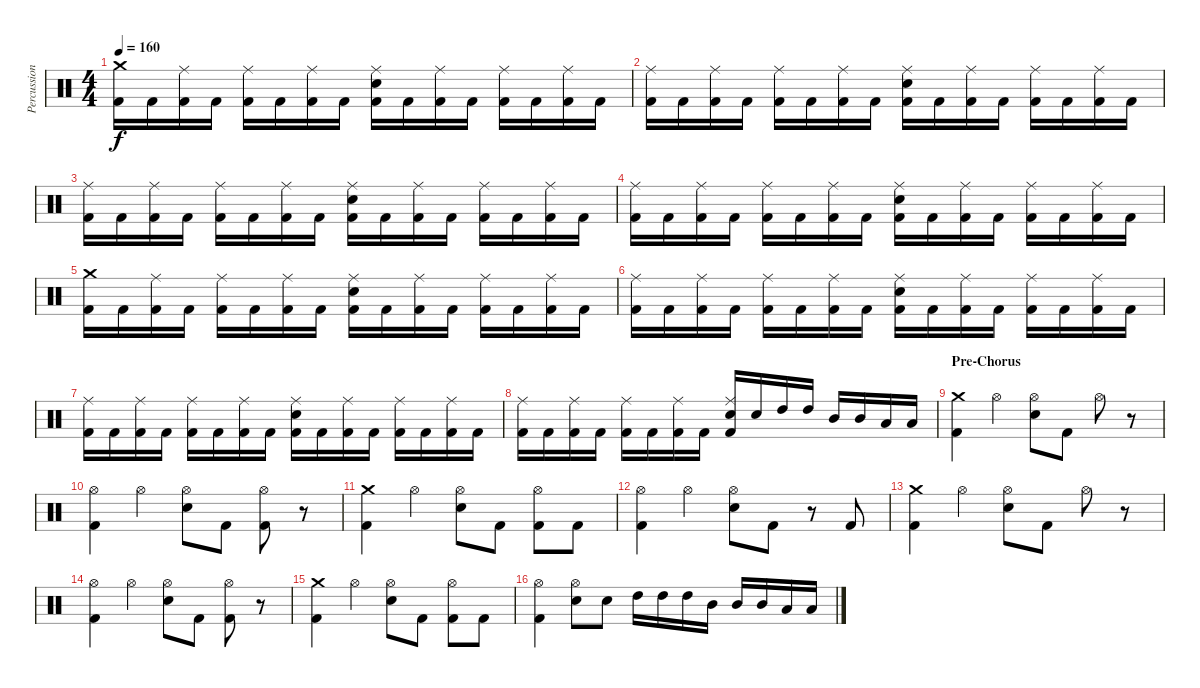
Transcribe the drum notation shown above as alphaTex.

\track ("Percussions" "Percussion") {instrument percussion}
\staff {score}
\articulation defaults
\ts (4 4)
\tempo 160
\clef neutral
\ks c
("Crash medium (hit)" "Kick (hit) 2").16{dy f} "Kick (hit) 2".16 ("Ride (middle)" "Kick (hit) 2").16 "Kick (hit) 2".16 ("Ride (middle)" "Kick (hit) 2").16 "Kick (hit) 2".16 ("Ride (middle)" "Kick (hit) 2").16 "Kick (hit) 2".16 ("Ride (middle)" "Electric Snare (hit)" "Kick (hit) 2").16 "Kick (hit) 2".16 ("Ride (middle)" "Kick (hit) 2").16 "Kick (hit) 2".16 ("Ride (middle)" "Kick (hit) 2").16 "Kick (hit) 2".16 ("Ride (middle)" "Kick (hit) 2").16 "Kick (hit) 2".16 |
("Ride (middle)" "Kick (hit) 2").16 "Kick (hit) 2".16 ("Ride (middle)" "Kick (hit) 2").16 "Kick (hit) 2".16 ("Ride (middle)" "Kick (hit) 2").16 "Kick (hit) 2".16 ("Ride (middle)" "Kick (hit) 2").16 "Kick (hit) 2".16 ("Ride (middle)" "Electric Snare (hit)" "Kick (hit) 2").16 "Kick (hit) 2".16 ("Ride (middle)" "Kick (hit) 2").16 "Kick (hit) 2".16 ("Ride (middle)" "Kick (hit) 2").16 "Kick (hit) 2".16 ("Ride (middle)" "Kick (hit) 2").16 "Kick (hit) 2".16 |
("Ride (middle)" "Kick (hit) 2").16 "Kick (hit) 2".16 ("Ride (middle)" "Kick (hit) 2").16 "Kick (hit) 2".16 ("Ride (middle)" "Kick (hit) 2").16 "Kick (hit) 2".16 ("Ride (middle)" "Kick (hit) 2").16 "Kick (hit) 2".16 ("Ride (middle)" "Electric Snare (hit)" "Kick (hit) 2").16 "Kick (hit) 2".16 ("Ride (middle)" "Kick (hit) 2").16 "Kick (hit) 2".16 ("Ride (middle)" "Kick (hit) 2").16 "Kick (hit) 2".16 ("Ride (middle)" "Kick (hit) 2").16 "Kick (hit) 2".16 |
("Ride (middle)" "Kick (hit) 2").16 "Kick (hit) 2".16 ("Ride (middle)" "Kick (hit) 2").16 "Kick (hit) 2".16 ("Ride (middle)" "Kick (hit) 2").16 "Kick (hit) 2".16 ("Ride (middle)" "Kick (hit) 2").16 "Kick (hit) 2".16 ("Ride (middle)" "Electric Snare (hit)" "Kick (hit) 2").16 "Kick (hit) 2".16 ("Ride (middle)" "Kick (hit) 2").16 "Kick (hit) 2".16 ("Ride (middle)" "Kick (hit) 2").16 "Kick (hit) 2".16 ("Ride (middle)" "Kick (hit) 2").16 "Kick (hit) 2".16 |
("Crash medium (hit)" "Kick (hit) 2").16 "Kick (hit) 2".16 ("Ride (middle)" "Kick (hit) 2").16 "Kick (hit) 2".16 ("Ride (middle)" "Kick (hit) 2").16 "Kick (hit) 2".16 ("Ride (middle)" "Kick (hit) 2").16 "Kick (hit) 2".16 ("Ride (middle)" "Electric Snare (hit)" "Kick (hit) 2").16 "Kick (hit) 2".16 ("Ride (middle)" "Kick (hit) 2").16 "Kick (hit) 2".16 ("Ride (middle)" "Kick (hit) 2").16 "Kick (hit) 2".16 ("Ride (middle)" "Kick (hit) 2").16 "Kick (hit) 2".16 |
("Ride (middle)" "Kick (hit) 2").16 "Kick (hit) 2".16 ("Ride (middle)" "Kick (hit) 2").16 "Kick (hit) 2".16 ("Ride (middle)" "Kick (hit) 2").16 "Kick (hit) 2".16 ("Ride (middle)" "Kick (hit) 2").16 "Kick (hit) 2".16 ("Ride (middle)" "Electric Snare (hit)" "Kick (hit) 2").16 "Kick (hit) 2".16 ("Ride (middle)" "Kick (hit) 2").16 "Kick (hit) 2".16 ("Ride (middle)" "Kick (hit) 2").16 "Kick (hit) 2".16 ("Ride (middle)" "Kick (hit) 2").16 "Kick (hit) 2".16 |
("Ride (middle)" "Kick (hit) 2").16 "Kick (hit) 2".16 ("Ride (middle)" "Kick (hit) 2").16 "Kick (hit) 2".16 ("Ride (middle)" "Kick (hit) 2").16 "Kick (hit) 2".16 ("Ride (middle)" "Kick (hit) 2").16 "Kick (hit) 2".16 ("Ride (middle)" "Electric Snare (hit)" "Kick (hit) 2").16 "Kick (hit) 2".16 ("Ride (middle)" "Kick (hit) 2").16 "Kick (hit) 2".16 ("Ride (middle)" "Kick (hit) 2").16 "Kick (hit) 2".16 ("Ride (middle)" "Kick (hit) 2").16 "Kick (hit) 2".16 |
("Ride (middle)" "Kick (hit) 2").16 "Kick (hit) 2".16 ("Ride (middle)" "Kick (hit) 2").16 "Kick (hit) 2".16 ("Ride (middle)" "Kick (hit) 2").16 "Kick (hit) 2".16 ("Ride (middle)" "Kick (hit) 2").16 "Kick (hit) 2".16 ("Ride (middle)" "Electric Snare (hit)" "Kick (hit) 2").16 "Electric Snare (hit)".16 "High Tom (hit)".16 "High Tom (hit)".16 "Mid Tom (hit)".16 "Mid Tom (hit)".16 "Low Tom (hit)".16 "Low Tom (hit)".16 |
\section ("" "Pre-Chorus")
("Crash medium (hit)" "Kick (hit) 2").4 "Hi-Hat (open)".4 ("Hi-Hat (open)" "Electric Snare (hit)").8 "Kick (hit) 2".8 "Hi-Hat (open)".8 r.8 |
("Hi-Hat (open)" "Kick (hit) 2").4 "Hi-Hat (open)".4 ("Hi-Hat (open)" "Electric Snare (hit)").8 "Kick (hit) 2".8 ("Hi-Hat (open)" "Kick (hit) 2").8 r.8 |
("Crash medium (hit)" "Kick (hit) 2").4 "Hi-Hat (open)".4 ("Hi-Hat (open)" "Electric Snare (hit)").8 "Kick (hit) 2".8 ("Hi-Hat (open)" "Kick (hit) 2").8 "Kick (hit) 2".8 |
("Hi-Hat (open)" "Kick (hit) 2").4 "Hi-Hat (open)".4 ("Hi-Hat (open)" "Electric Snare (hit)").8 "Kick (hit) 2".8 r.8 "Kick (hit) 2".8 |
("Crash medium (hit)" "Kick (hit) 2").4 "Hi-Hat (open)".4 ("Hi-Hat (open)" "Electric Snare (hit)").8 "Kick (hit) 2".8 "Hi-Hat (open)".8 r.8 |
("Hi-Hat (open)" "Kick (hit) 2").4 "Hi-Hat (open)".4 ("Hi-Hat (open)" "Electric Snare (hit)").8 "Kick (hit) 2".8 ("Hi-Hat (open)" "Kick (hit) 2").8 r.8 |
("Crash medium (hit)" "Kick (hit) 2").4 "Hi-Hat (open)".4 ("Hi-Hat (open)" "Electric Snare (hit)").8 "Kick (hit) 2".8 ("Hi-Hat (open)" "Kick (hit) 2").8 "Kick (hit) 2".8 |
("Hi-Hat (open)" "Kick (hit) 2").4 ("Hi-Hat (open)" "Electric Snare (hit)").8 "Electric Snare (hit)".8 "High Tom (hit)".16 "High Tom (hit)".16 "High Tom (hit)".16 "Mid Tom (hit)".16 "Mid Tom (hit)".16 "Mid Tom (hit)".16 "Low Tom (hit)".16 "Low Tom (hit)".16
